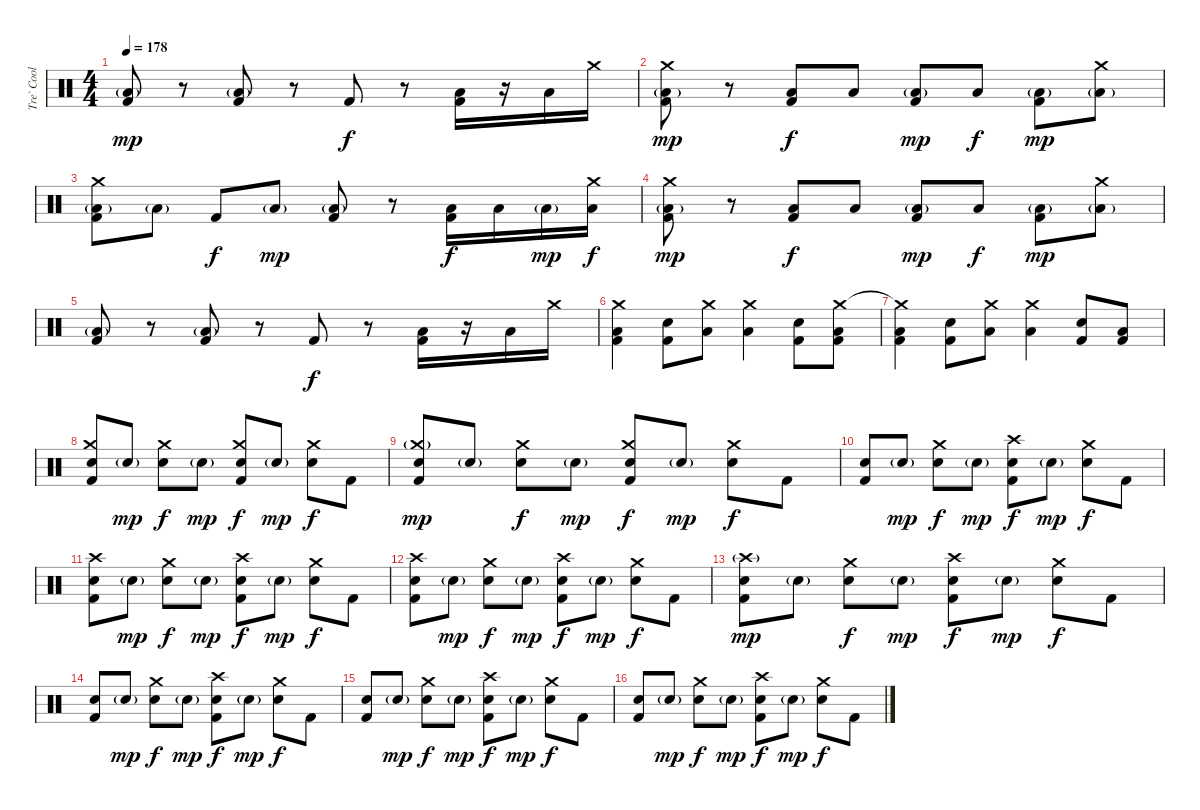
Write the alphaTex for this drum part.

\track ("Tre` Cool (Drums)" "Tre` Cool ") {instrument percussion}
\staff {score}
\articulation defaults
\ts (4 4)
\tempo 178
\clef neutral
\ks c
("Low Tom (hit)"{g} "Kick (hit) 2").8{dy mp} r.8 ("Low Tom (hit)"{g} "Kick (hit) 2").8 r.8 "Kick (hit) 2".8{dy f} r.8 ("Low Floor Tom (hit)" "Kick (hit) 2").16 r.16 "Low Tom (hit)".16 "Crash medium (hit)".16 |
("Crash medium (hit)" "Low Tom (hit)"{g} "Kick (hit) 2").8{dy mp} r.8 ("Low Tom (hit)" "Kick (hit) 2").8{dy f} "Low Tom (hit)".8 ("Low Tom (hit)"{g} "Kick (hit) 2").8{dy mp} "Low Tom (hit)".8{dy f} ("Low Tom (hit)"{g} "Kick (hit) 2").8{dy mp} ("Crash medium (hit)" "Low Tom (hit)"{g}).8 |
("Crash medium (hit)" "Low Tom (hit)"{g} "Kick (hit) 2").8 "Low Tom (hit)"{g}.8 "Kick (hit) 2".8{dy f} "Low Tom (hit)"{g}.8{dy mp} ("Low Tom (hit)"{g} "Kick (hit) 2").8 r.8 ("Low Floor Tom (hit)" "Kick (hit) 2").16{dy f} "Low Floor Tom (hit)".16 "Low Tom (hit)"{g}.16{dy mp} ("Crash medium (hit)" "Low Floor Tom (hit)").16{dy f} |
("Crash medium (hit)" "Low Tom (hit)"{g} "Kick (hit) 2").8{dy mp} r.8 ("Low Tom (hit)" "Kick (hit) 2").8{dy f} "Low Tom (hit)".8 ("Low Tom (hit)"{g} "Kick (hit) 2").8{dy mp} "Low Tom (hit)".8{dy f} ("Low Tom (hit)"{g} "Kick (hit) 2").8{dy mp} ("Crash medium (hit)" "Low Tom (hit)"{g}).8 |
("Low Tom (hit)"{g} "Kick (hit) 2").8 r.8 ("Low Tom (hit)"{g} "Kick (hit) 2").8 r.8 "Kick (hit) 2".8{dy f} r.8 ("Low Floor Tom (hit)" "Kick (hit) 2").16 r.16 "Low Tom (hit)".16 "Crash medium (hit)".16 |
("Crash medium (hit)" "Low Tom (hit)" "Kick (hit) 2").4 ("Snare (hit) 2" "Kick (hit) 2").8 ("Crash medium (hit)" "Low Floor Tom (hit)").8 ("Crash medium (hit)" "Low Floor Tom (hit)").4 ("Snare (hit) 2" "Kick (hit) 2").8 ("Crash medium (hit)" "Low Tom (hit)" "Kick (hit) 2").8 |
("Crash medium (hit)"{t} "Low Tom (hit)" "Kick (hit) 2").4 ("Snare (hit) 2" "Kick (hit) 2").8 ("Crash medium (hit)" "Low Floor Tom (hit)").8 ("Crash medium (hit)" "Low Floor Tom (hit)").4 ("Snare (hit) 2" "Kick (hit) 2").8 ("Low Tom (hit)" "Kick (hit) 2").8 |
("Crash medium (hit)" "Snare (hit) 2" "Kick (hit) 2").8 "Snare (hit) 2"{g}.8{dy mp} ("Crash medium (hit)" "Snare (hit) 2").8{dy f} "Snare (hit) 2"{g}.8{dy mp} ("Crash medium (hit)" "Snare (hit) 2" "Kick (hit) 2").8{dy f} "Snare (hit) 2"{g}.8{dy mp} ("Crash medium (hit)" "Snare (hit) 2").8{dy f} "Kick (hit) 2".8 |
("Crash medium (hit)"{g} "Snare (hit) 2" "Kick (hit) 2").8{dy mp} "Snare (hit) 2"{g}.8 ("Crash medium (hit)" "Snare (hit) 2").8{dy f} "Snare (hit) 2"{g}.8{dy mp} ("Crash medium (hit)" "Snare (hit) 2" "Kick (hit) 2").8{dy f} "Snare (hit) 2"{g}.8{dy mp} ("Crash medium (hit)" "Snare (hit) 2").8{dy f} "Kick (hit) 2".8 |
("Snare (hit) 2" "Kick (hit) 2").8 "Snare (hit) 2"{g}.8{dy mp} ("Crash medium (hit)" "Snare (hit) 2").8{dy f} "Snare (hit) 2"{g}.8{dy mp} ("Crash high (hit)" "Snare (hit) 2" "Kick (hit) 2").8{dy f} "Snare (hit) 2"{g}.8{dy mp} ("Crash medium (hit)" "Snare (hit) 2").8{dy f} "Kick (hit) 2".8 |
("Crash high (hit)" "Snare (hit) 2" "Kick (hit) 2").8 "Snare (hit) 2"{g}.8{dy mp} ("Crash medium (hit)" "Snare (hit) 2").8{dy f} "Snare (hit) 2"{g}.8{dy mp} ("Crash high (hit)" "Snare (hit) 2" "Kick (hit) 2").8{dy f} "Snare (hit) 2"{g}.8{dy mp} ("Crash medium (hit)" "Snare (hit) 2").8{dy f} "Kick (hit) 2".8 |
("Crash high (hit)" "Snare (hit) 2" "Kick (hit) 2").8 "Snare (hit) 2"{g}.8{dy mp} ("Crash medium (hit)" "Snare (hit) 2").8{dy f} "Snare (hit) 2"{g}.8{dy mp} ("Crash high (hit)" "Snare (hit) 2" "Kick (hit) 2").8{dy f} "Snare (hit) 2"{g}.8{dy mp} ("Crash medium (hit)" "Snare (hit) 2").8{dy f} "Kick (hit) 2".8 |
("Crash high (hit)"{g} "Snare (hit) 2" "Kick (hit) 2").8{dy mp} "Snare (hit) 2"{g}.8 ("Crash medium (hit)" "Snare (hit) 2").8{dy f} "Snare (hit) 2"{g}.8{dy mp} ("Crash high (hit)" "Snare (hit) 2" "Kick (hit) 2").8{dy f} "Snare (hit) 2"{g}.8{dy mp} ("Crash medium (hit)" "Snare (hit) 2").8{dy f} "Kick (hit) 2".8 |
("Snare (hit) 2" "Kick (hit) 2").8 "Snare (hit) 2"{g}.8{dy mp} ("Crash medium (hit)" "Snare (hit) 2").8{dy f} "Snare (hit) 2"{g}.8{dy mp} ("Crash high (hit)" "Snare (hit) 2" "Kick (hit) 2").8{dy f} "Snare (hit) 2"{g}.8{dy mp} ("Crash medium (hit)" "Snare (hit) 2").8{dy f} "Kick (hit) 2".8 |
("Snare (hit) 2" "Kick (hit) 2").8 "Snare (hit) 2"{g}.8{dy mp} ("Crash medium (hit)" "Snare (hit) 2").8{dy f} "Snare (hit) 2"{g}.8{dy mp} ("Crash high (hit)" "Snare (hit) 2" "Kick (hit) 2").8{dy f} "Snare (hit) 2"{g}.8{dy mp} ("Crash medium (hit)" "Snare (hit) 2").8{dy f} "Kick (hit) 2".8 |
("Snare (hit) 2" "Kick (hit) 2").8 "Snare (hit) 2"{g}.8{dy mp} ("Crash medium (hit)" "Snare (hit) 2").8{dy f} "Snare (hit) 2"{g}.8{dy mp} ("Crash high (hit)" "Snare (hit) 2" "Kick (hit) 2").8{dy f} "Snare (hit) 2"{g}.8{dy mp} ("Crash medium (hit)" "Snare (hit) 2").8{dy f} "Kick (hit) 2".8
